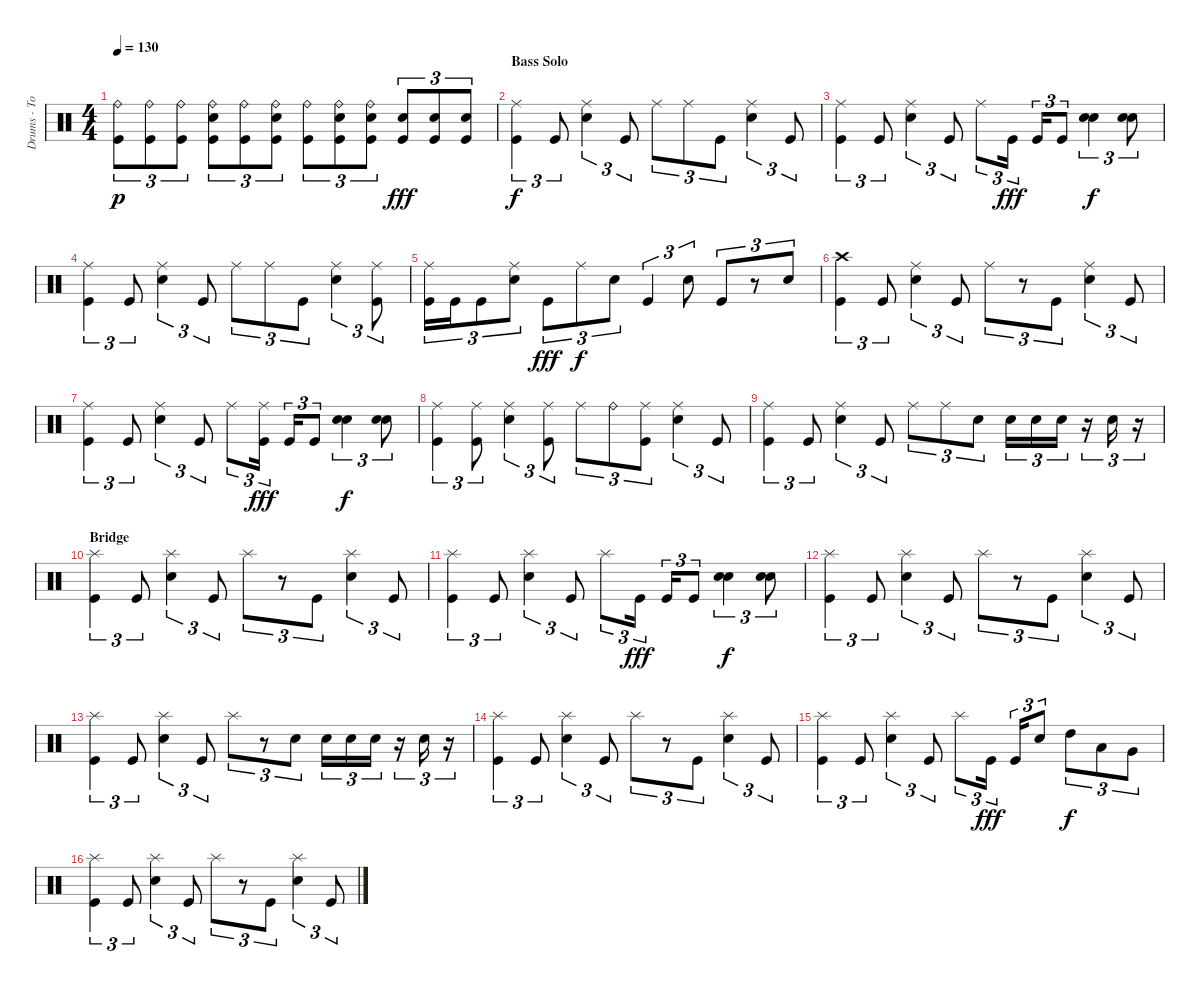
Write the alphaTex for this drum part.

\track ("Drums - Tomas" "Drums - To") {instrument percussion}
\staff {score}
\articulation defaults
\ts (4 4)
\tempo 130
\clef neutral
\ks c
("Ride (bell)" "Kick (hit)").8{tu (3 2) dy p} ("Ride (bell)" "Kick (hit)").8{tu (3 2)} ("Ride (bell)" "Kick (hit)").8{tu (3 2)} ("Ride (bell)" "Electric Snare (hit)" "Kick (hit)").8{tu (3 2)} ("Ride (bell)" "Kick (hit)").8{tu (3 2)} ("Ride (bell)" "Electric Snare (hit)" "Kick (hit)").8{tu (3 2)} ("Ride (bell)" "Kick (hit)").8{tu (3 2)} ("Ride (bell)" "Electric Snare (hit)" "Kick (hit)").8{tu (3 2)} ("Ride (bell)" "Electric Snare (hit)" "Kick (hit)").8{tu (3 2)} ("Electric Snare (hit)" "Kick (hit)").8{tu (3 2) dy fff} ("Electric Snare (hit)" "Kick (hit)").8{tu (3 2)} ("Electric Snare (hit)" "Kick (hit)").8{tu (3 2)} |
\section ("" "Bass Solo")
("Ride (middle)" "Kick (hit)").4{tu (3 2) dy f} "Kick (hit)".8{tu (3 2)} ("Ride (middle)" "Electric Snare (hit)").4{tu (3 2)} "Kick (hit)".8{tu (3 2)} "Ride (middle)".8{tu (3 2)} "Ride (middle)".8{tu (3 2)} "Kick (hit)".8{tu (3 2)} ("Ride (middle)" "Electric Snare (hit)").4{tu (3 2)} "Kick (hit)".8{tu (3 2)} |
("Ride (middle)" "Kick (hit)").4{tu (3 2)} "Kick (hit)".8{tu (3 2)} ("Ride (middle)" "Electric Snare (hit)").4{tu (3 2)} "Kick (hit)".8{tu (3 2)} "Ride (middle)".8{tu (3 2)} "Kick (hit)".16{tu (3 2) dy fff} "Kick (hit)".16{tu (3 2)} "Kick (hit)".8{tu (3 2)} ("Electric Snare (hit)" "Electric Snare (hit)").4{tu (3 2) dy f} ("Electric Snare (hit)" "Electric Snare (hit)").8{tu (3 2)} |
("Ride (middle)" "Kick (hit)").4{tu (3 2)} "Kick (hit)".8{tu (3 2)} ("Ride (middle)" "Electric Snare (hit)").4{tu (3 2)} "Kick (hit)".8{tu (3 2)} "Ride (middle)".8{tu (3 2)} "Ride (middle)".8{tu (3 2)} "Kick (hit)".8{tu (3 2)} ("Ride (middle)" "Electric Snare (hit)").4{tu (3 2)} ("Ride (middle)" "Kick (hit)").8{tu (3 2)} |
("Ride (middle)" "Kick (hit)").16{tu (3 2)} "Kick (hit)".16{tu (3 2)} "Kick (hit)".8{tu (3 2)} ("Ride (middle)" "Electric Snare (hit)").8{tu (3 2)} "Kick (hit)".8{tu (3 2) dy fff} "Ride (middle)".8{tu (3 2) dy f} "Electric Snare (hit)".8{tu (3 2)} "Kick (hit)".4{tu (3 2)} "Electric Snare (hit)".8{tu (3 2)} "Kick (hit)".8{tu (3 2)} r.8{tu (3 2)} "Electric Snare (hit)".8{tu (3 2)} |
("Crash high (hit)" "Kick (hit)").4{tu (3 2)} "Kick (hit)".8{tu (3 2)} ("Ride (middle)" "Electric Snare (hit)").4{tu (3 2)} "Kick (hit)".8{tu (3 2)} "Ride (middle)".8{tu (3 2)} r.8{tu (3 2)} "Kick (hit)".8{tu (3 2)} ("Ride (middle)" "Electric Snare (hit)").4{tu (3 2)} "Kick (hit)".8{tu (3 2)} |
("Ride (middle)" "Kick (hit)").4{tu (3 2)} "Kick (hit)".8{tu (3 2)} ("Ride (middle)" "Electric Snare (hit)").4{tu (3 2)} "Kick (hit)".8{tu (3 2)} "Ride (middle)".8{tu (3 2)} ("Ride (middle)" "Kick (hit)").16{tu (3 2) dy fff} "Kick (hit)".16{tu (3 2)} "Kick (hit)".8{tu (3 2)} ("Electric Snare (hit)" "Electric Snare (hit)").4{tu (3 2) dy f} ("Electric Snare (hit)" "Electric Snare (hit)").8{tu (3 2)} |
("Ride (middle)" "Kick (hit)").4{tu (3 2)} ("Ride (middle)" "Kick (hit)").8{tu (3 2)} ("Ride (middle)" "Electric Snare (hit)").4{tu (3 2)} ("Ride (middle)" "Kick (hit)").8{tu (3 2)} "Ride (middle)".8{tu (3 2)} "Ride (bell)".8{tu (3 2)} ("Ride (middle)" "Kick (hit)").8{tu (3 2)} ("Ride (middle)" "Electric Snare (hit)").4{tu (3 2)} "Kick (hit)".8{tu (3 2)} |
("Ride (middle)" "Kick (hit)").4{tu (3 2)} "Kick (hit)".8{tu (3 2)} ("Ride (middle)" "Electric Snare (hit)").4{tu (3 2)} "Kick (hit)".8{tu (3 2)} "Ride (middle)".8{tu (3 2)} "Ride (middle)".8{tu (3 2)} "Electric Snare (hit)".8{tu (3 2)} "Electric Snare (hit)".16{tu (3 2)} "Electric Snare (hit)".16{tu (3 2)} "Electric Snare (hit)".16{tu (3 2)} r.16{tu (3 2)} "Electric Snare (hit)".16{tu (3 2)} r.16{tu (3 2)} |
\section ("" "Bridge")
("Splash (hit)" "Kick (hit)").4{tu (3 2)} "Kick (hit)".8{tu (3 2)} ("Splash (hit)" "Electric Snare (hit)").4{tu (3 2)} "Kick (hit)".8{tu (3 2)} "Splash (hit)".8{tu (3 2)} r.8{tu (3 2)} "Kick (hit)".8{tu (3 2)} ("Splash (hit)" "Electric Snare (hit)").4{tu (3 2)} "Kick (hit)".8{tu (3 2)} |
("Splash (hit)" "Kick (hit)").4{tu (3 2)} "Kick (hit)".8{tu (3 2)} ("Splash (hit)" "Electric Snare (hit)").4{tu (3 2)} "Kick (hit)".8{tu (3 2)} "Splash (hit)".8{tu (3 2)} "Kick (hit)".16{tu (3 2) dy fff} "Kick (hit)".16{tu (3 2)} "Kick (hit)".8{tu (3 2)} ("Electric Snare (hit)" "Electric Snare (hit)").4{tu (3 2) dy f} ("Electric Snare (hit)" "Electric Snare (hit)").8{tu (3 2)} |
("Splash (hit)" "Kick (hit)").4{tu (3 2)} "Kick (hit)".8{tu (3 2)} ("Splash (hit)" "Electric Snare (hit)").4{tu (3 2)} "Kick (hit)".8{tu (3 2)} "Splash (hit)".8{tu (3 2)} r.8{tu (3 2)} "Kick (hit)".8{tu (3 2)} ("Splash (hit)" "Electric Snare (hit)").4{tu (3 2)} "Kick (hit)".8{tu (3 2)} |
("Splash (hit)" "Kick (hit)").4{tu (3 2)} "Kick (hit)".8{tu (3 2)} ("Splash (hit)" "Electric Snare (hit)").4{tu (3 2)} "Kick (hit)".8{tu (3 2)} "Splash (hit)".8{tu (3 2)} r.8{tu (3 2)} "Electric Snare (hit)".8{tu (3 2)} "Electric Snare (hit)".16{tu (3 2)} "Electric Snare (hit)".16{tu (3 2)} "Electric Snare (hit)".16{tu (3 2)} r.16{tu (3 2)} "Electric Snare (hit)".16{tu (3 2)} r.16{tu (3 2)} |
("Splash (hit)" "Kick (hit)").4{tu (3 2)} "Kick (hit)".8{tu (3 2)} ("Splash (hit)" "Electric Snare (hit)").4{tu (3 2)} "Kick (hit)".8{tu (3 2)} "Splash (hit)".8{tu (3 2)} r.8{tu (3 2)} "Kick (hit)".8{tu (3 2)} ("Splash (hit)" "Electric Snare (hit)").4{tu (3 2)} "Kick (hit)".8{tu (3 2)} |
("Splash (hit)" "Kick (hit)").4{tu (3 2)} "Kick (hit)".8{tu (3 2)} ("Splash (hit)" "Electric Snare (hit)").4{tu (3 2)} "Kick (hit)".8{tu (3 2)} "Splash (hit)".8{tu (3 2)} "Kick (hit)".16{tu (3 2) dy fff} "Kick (hit)".16{tu (3 2)} "Electric Snare (hit)".8{tu (3 2)} "High Tom (hit)".8{tu (3 2) dy f} "Low Tom (hit)".8{tu (3 2)} "Very Low Tom (hit)".8{tu (3 2)} |
("Splash (hit)" "Kick (hit)").4{tu (3 2)} "Kick (hit)".8{tu (3 2)} ("Splash (hit)" "Electric Snare (hit)").4{tu (3 2)} "Kick (hit)".8{tu (3 2)} "Splash (hit)".8{tu (3 2)} r.8{tu (3 2)} "Kick (hit)".8{tu (3 2)} ("Splash (hit)" "Electric Snare (hit)").4{tu (3 2)} "Kick (hit)".8{tu (3 2)}
